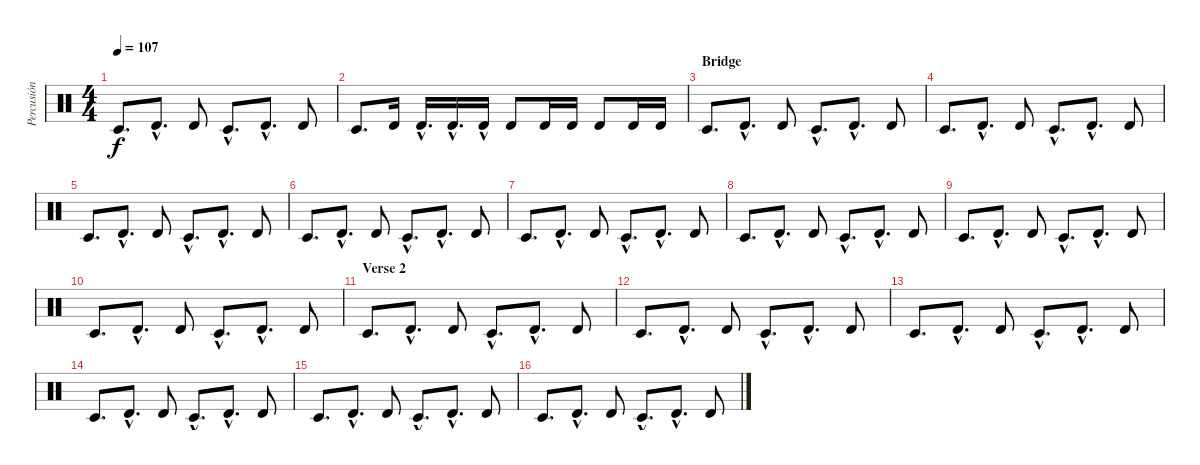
\track ("Percusión" "Percusión") {instrument percussion}
\staff {score}
\articulation defaults
\ts (4 4)
\tempo 107
\clef neutral
\ks c "Timbale low (hit)".8{d dy f} "Timbale high (hit)"{hac}.8{d} "Timbale high (hit)".8 "Timbale low (hit)"{hac}.8{d} "Timbale high (hit)"{hac}.8{d} "Timbale high (hit)".8
|
"Timbale low (hit)".8{d} "Timbale high (hit)".16 "Timbale high (hit)"{hac}.16{d} "Timbale high (hit)"{hac}.16{d} "Timbale high (hit)"{hac}.16 "Timbale high (hit)".8 "Timbale high (hit)".16 "Timbale high (hit)".16 "Timbale high (hit)".8 "Timbale high (hit)".16 "Timbale high (hit)".16 |
\section ("" "Bridge")
"Timbale low (hit)".8{d} "Timbale high (hit)"{hac}.8{d} "Timbale high (hit)".8 "Timbale low (hit)"{hac}.8{d} "Timbale high (hit)"{hac}.8{d} "Timbale high (hit)".8 |
"Timbale low (hit)".8{d} "Timbale high (hit)"{hac}.8{d} "Timbale high (hit)".8 "Timbale low (hit)"{hac}.8{d} "Timbale high (hit)"{hac}.8{d} "Timbale high (hit)".8 |
"Timbale low (hit)".8{d} "Timbale high (hit)"{hac}.8{d} "Timbale high (hit)".8 "Timbale low (hit)"{hac}.8{d} "Timbale high (hit)"{hac}.8{d} "Timbale high (hit)".8 |
"Timbale low (hit)".8{d} "Timbale high (hit)"{hac}.8{d} "Timbale high (hit)".8 "Timbale low (hit)"{hac}.8{d} "Timbale high (hit)"{hac}.8{d} "Timbale high (hit)".8 |
"Timbale low (hit)".8{d} "Timbale high (hit)"{hac}.8{d} "Timbale high (hit)".8 "Timbale low (hit)"{hac}.8{d} "Timbale high (hit)"{hac}.8{d} "Timbale high (hit)".8 |
"Timbale low (hit)".8{d} "Timbale high (hit)"{hac}.8{d} "Timbale high (hit)".8 "Timbale low (hit)"{hac}.8{d} "Timbale high (hit)"{hac}.8{d} "Timbale high (hit)".8 |
"Timbale low (hit)".8{d} "Timbale high (hit)"{hac}.8{d} "Timbale high (hit)".8 "Timbale low (hit)"{hac}.8{d} "Timbale high (hit)"{hac}.8{d} "Timbale high (hit)".8 |
"Timbale low (hit)".8{d} "Timbale high (hit)"{hac}.8{d} "Timbale high (hit)".8 "Timbale low (hit)"{hac}.8{d} "Timbale high (hit)"{hac}.8{d} "Timbale high (hit)".8 |
\section ("" "Verse 2")
"Timbale low (hit)".8{d} "Timbale high (hit)"{hac}.8{d} "Timbale high (hit)".8 "Timbale low (hit)"{hac}.8{d} "Timbale high (hit)"{hac}.8{d} "Timbale high (hit)".8 |
"Timbale low (hit)".8{d} "Timbale high (hit)"{hac}.8{d} "Timbale high (hit)".8 "Timbale low (hit)"{hac}.8{d} "Timbale high (hit)"{hac}.8{d} "Timbale high (hit)".8 |
"Timbale low (hit)".8{d} "Timbale high (hit)"{hac}.8{d} "Timbale high (hit)".8 "Timbale low (hit)"{hac}.8{d} "Timbale high (hit)"{hac}.8{d} "Timbale high (hit)".8 |
"Timbale low (hit)".8{d} "Timbale high (hit)"{hac}.8{d} "Timbale high (hit)".8 "Timbale low (hit)"{hac}.8{d} "Timbale high (hit)"{hac}.8{d} "Timbale high (hit)".8 |
"Timbale low (hit)".8{d} "Timbale high (hit)"{hac}.8{d} "Timbale high (hit)".8 "Timbale low (hit)"{hac}.8{d} "Timbale high (hit)"{hac}.8{d} "Timbale high (hit)".8 |
"Timbale low (hit)".8{d} "Timbale high (hit)"{hac}.8{d} "Timbale high (hit)".8 "Timbale low (hit)"{hac}.8{d} "Timbale high (hit)"{hac}.8{d} "Timbale high (hit)".8
